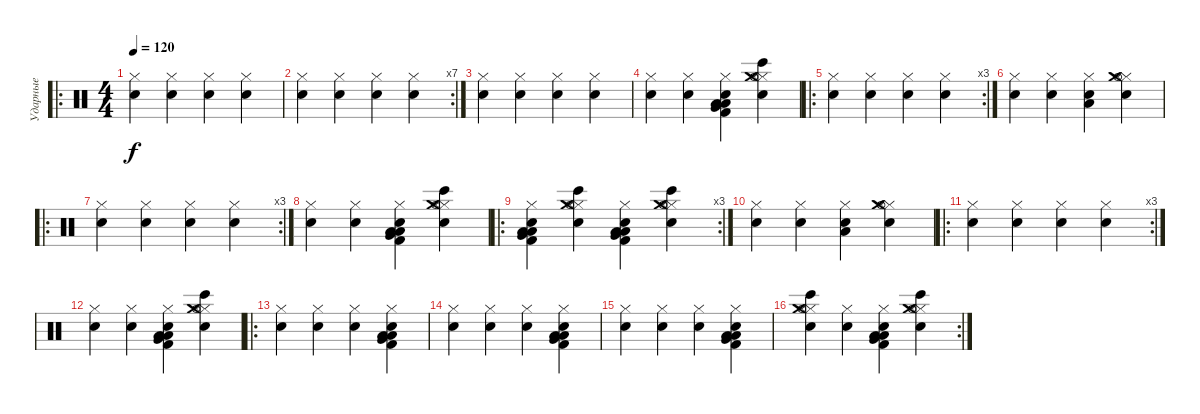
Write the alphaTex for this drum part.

\track ("Ударные" "Ударные") {instrument percussion}
\staff {score}
\articulation defaults
\ro
\ts (4 4)
\tempo 120
\clef neutral
\ks c
("Hi-Hat (closed)" "Snare (hit) 2").4{dy f} ("Hi-Hat (closed)" "Snare (hit) 2").4 ("Hi-Hat (closed)" "Snare (hit) 2").4 ("Hi-Hat (closed)" "Snare (hit) 2").4 |
\rc 7
("Hi-Hat (closed)" "Snare (hit) 2").4 ("Hi-Hat (closed)" "Snare (hit) 2").4 ("Hi-Hat (closed)" "Snare (hit) 2").4 ("Hi-Hat (closed)" "Snare (hit) 2").4 |
("Hi-Hat (closed)" "Snare (hit) 2").4 ("Hi-Hat (closed)" "Snare (hit) 2").4 ("Hi-Hat (closed)" "Snare (hit) 2").4 ("Hi-Hat (closed)" "Snare (hit) 2").4 |
("Hi-Hat (closed)" "Snare (hit) 2").4 ("Hi-Hat (closed)" "Snare (hit) 2").4 ("Hi-Hat (closed)" "Kick (hit) 2" "Low Tom (hit)" "Snare (hit) 2" "Low Floor Tom (hit)" "Very Low Tom (hit)").4 ("Hi-Hat (closed)" "Crash medium (hit)" "Hi-Hat (open)" "Snare (hit) 2" "Bongo High (hit)").4 |
\ro
\rc 3
("Hi-Hat (closed)" "Snare (hit) 2").4 ("Hi-Hat (closed)" "Snare (hit) 2").4 ("Hi-Hat (closed)" "Snare (hit) 2").4 ("Hi-Hat (closed)" "Snare (hit) 2").4 |
("Hi-Hat (closed)" "Snare (hit) 2").4 ("Hi-Hat (closed)" "Snare (hit) 2").4 ("Hi-Hat (closed)" "Low Tom (hit)" "Snare (hit) 2").4 ("Hi-Hat (closed)" "Crash medium (hit)" "Hi-Hat (open)" "Snare (hit) 2").4 |
\ro
\rc 3
("Hi-Hat (closed)" "Snare (hit) 2").4 ("Hi-Hat (closed)" "Snare (hit) 2").4 ("Hi-Hat (closed)" "Snare (hit) 2").4 ("Hi-Hat (closed)" "Snare (hit) 2").4 |
("Hi-Hat (closed)" "Snare (hit) 2").4 ("Hi-Hat (closed)" "Snare (hit) 2").4 ("Hi-Hat (closed)" "Kick (hit) 2" "Low Tom (hit)" "Snare (hit) 2" "Low Floor Tom (hit)" "Very Low Tom (hit)").4 ("Hi-Hat (closed)" "Crash medium (hit)" "Hi-Hat (open)" "Snare (hit) 2" "Bongo High (hit)").4 |
\ro
\rc 3
("Hi-Hat (closed)" "Kick (hit) 2" "Low Tom (hit)" "Snare (hit) 2" "Low Floor Tom (hit)" "Very Low Tom (hit)").4 ("Hi-Hat (closed)" "Crash medium (hit)" "Hi-Hat (open)" "Snare (hit) 2" "Bongo High (hit)").4 ("Hi-Hat (closed)" "Kick (hit) 2" "Low Tom (hit)" "Snare (hit) 2" "Low Floor Tom (hit)" "Very Low Tom (hit)").4 ("Hi-Hat (closed)" "Crash medium (hit)" "Hi-Hat (open)" "Snare (hit) 2" "Bongo High (hit)").4 |
("Hi-Hat (closed)" "Snare (hit) 2").4 ("Hi-Hat (closed)" "Snare (hit) 2").4 ("Hi-Hat (closed)" "Low Tom (hit)" "Snare (hit) 2").4 ("Hi-Hat (closed)" "Crash medium (hit)" "Hi-Hat (open)" "Snare (hit) 2").4 |
\ro
\rc 3
("Hi-Hat (closed)" "Snare (hit) 2").4 ("Hi-Hat (closed)" "Snare (hit) 2").4 ("Hi-Hat (closed)" "Snare (hit) 2").4 ("Hi-Hat (closed)" "Snare (hit) 2").4 |
("Hi-Hat (closed)" "Snare (hit) 2").4 ("Hi-Hat (closed)" "Snare (hit) 2").4 ("Hi-Hat (closed)" "Kick (hit) 2" "Low Tom (hit)" "Snare (hit) 2" "Low Floor Tom (hit)" "Very Low Tom (hit)").4 ("Hi-Hat (closed)" "Crash medium (hit)" "Hi-Hat (open)" "Snare (hit) 2" "Bongo High (hit)").4 |
\ro
("Hi-Hat (closed)" "Snare (hit) 2").4 ("Hi-Hat (closed)" "Snare (hit) 2").4 ("Hi-Hat (closed)" "Snare (hit) 2").4 ("Hi-Hat (closed)" "Kick (hit) 2" "Low Tom (hit)" "Snare (hit) 2" "Low Floor Tom (hit)" "Very Low Tom (hit)").4 |
("Hi-Hat (closed)" "Snare (hit) 2").4 ("Hi-Hat (closed)" "Snare (hit) 2").4 ("Hi-Hat (closed)" "Snare (hit) 2").4 ("Hi-Hat (closed)" "Kick (hit) 2" "Low Tom (hit)" "Snare (hit) 2" "Low Floor Tom (hit)" "Very Low Tom (hit)").4 |
("Hi-Hat (closed)" "Snare (hit) 2").4 ("Hi-Hat (closed)" "Snare (hit) 2").4 ("Hi-Hat (closed)" "Snare (hit) 2").4 ("Hi-Hat (closed)" "Kick (hit) 2" "Low Tom (hit)" "Snare (hit) 2" "Low Floor Tom (hit)" "Very Low Tom (hit)").4 |
\rc 2
("Hi-Hat (closed)" "Crash medium (hit)" "Hi-Hat (open)" "Snare (hit) 2" "Bongo High (hit)").4 ("Hi-Hat (closed)" "Snare (hit) 2").4 ("Hi-Hat (closed)" "Kick (hit) 2" "Low Tom (hit)" "Snare (hit) 2" "Low Floor Tom (hit)" "Very Low Tom (hit)").4 ("Hi-Hat (closed)" "Crash medium (hit)" "Hi-Hat (open)" "Snare (hit) 2" "Bongo High (hit)").4
